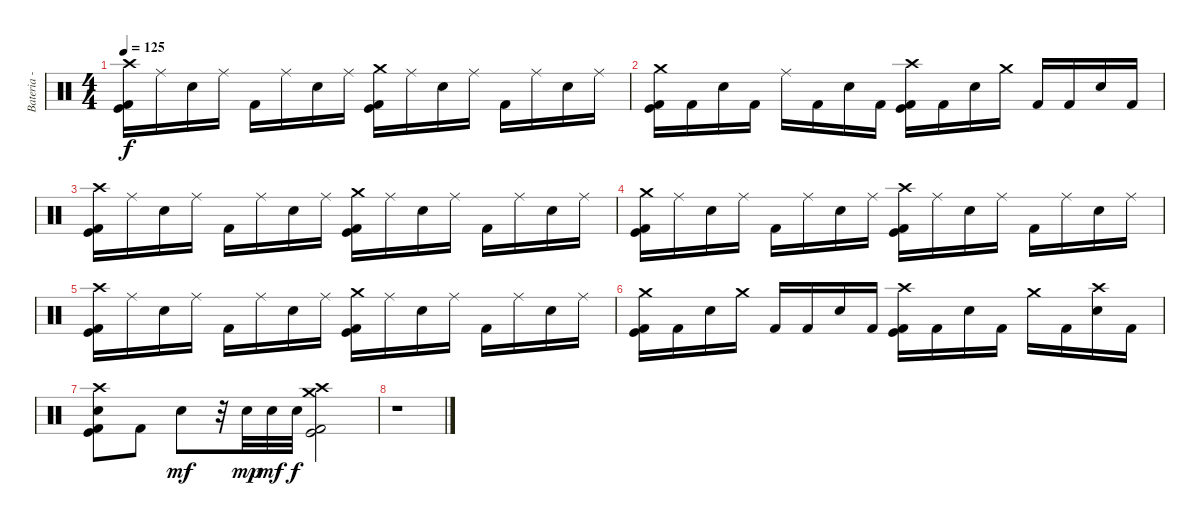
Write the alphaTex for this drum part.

\track ("Bateria - Drums" "Bateria - ") {instrument percussion}
\staff {score}
\articulation defaults
\ts (4 4)
\tempo 125
\clef neutral
\ks c
("Crash high (hit)" "Kick (hit)" "Kick (hit) 2").16{dy f} "Ride (middle)".16 "Electric Snare (hit)".16 "Ride (middle)".16 "Kick (hit) 2".16 "Ride (middle)".16 "Electric Snare (hit)".16 "Ride (middle)".16 ("Crash medium (hit)" "Kick (hit)" "Kick (hit) 2").16 "Ride (middle)".16 "Electric Snare (hit)".16 "Ride (middle)".16 "Kick (hit) 2".16 "Ride (middle)".16 "Electric Snare (hit)".16 "Ride (middle)".16 |
("Crash medium (hit)" "Kick (hit)" "Kick (hit) 2").16 "Kick (hit) 2".16 "Electric Snare (hit)".16 "Kick (hit) 2".16 "Ride (middle)".16 "Kick (hit) 2".16 "Electric Snare (hit)".16 "Kick (hit) 2".16 ("Crash high (hit)" "Kick (hit)" "Kick (hit) 2").16 "Kick (hit) 2".16 "Electric Snare (hit)".16 "Crash medium (hit)".16 "Kick (hit) 2".16 "Kick (hit) 2".16 "Electric Snare (hit)".16 "Kick (hit) 2".16 |
("Crash high (hit)" "Kick (hit)" "Kick (hit) 2").16 "Ride (middle)".16 "Electric Snare (hit)".16 "Ride (middle)".16 "Kick (hit) 2".16 "Ride (middle)".16 "Electric Snare (hit)".16 "Ride (middle)".16 ("Crash medium (hit)" "Kick (hit)" "Kick (hit) 2").16 "Ride (middle)".16 "Electric Snare (hit)".16 "Ride (middle)".16 "Kick (hit) 2".16 "Ride (middle)".16 "Electric Snare (hit)".16 "Ride (middle)".16 |
("Crash medium (hit)" "Kick (hit)" "Kick (hit) 2").16 "Ride (middle)".16 "Electric Snare (hit)".16 "Ride (middle)".16 "Kick (hit) 2".16 "Ride (middle)".16 "Electric Snare (hit)".16 "Ride (middle)".16 ("Crash high (hit)" "Kick (hit)" "Kick (hit) 2").16 "Ride (middle)".16 "Electric Snare (hit)".16 "Ride (middle)".16 "Kick (hit) 2".16 "Ride (middle)".16 "Electric Snare (hit)".16 "Ride (middle)".16 |
("Crash high (hit)" "Kick (hit)" "Kick (hit) 2").16 "Ride (middle)".16 "Electric Snare (hit)".16 "Ride (middle)".16 "Kick (hit) 2".16 "Ride (middle)".16 "Electric Snare (hit)".16 "Ride (middle)".16 ("Crash medium (hit)" "Kick (hit)" "Kick (hit) 2").16 "Ride (middle)".16 "Electric Snare (hit)".16 "Ride (middle)".16 "Kick (hit) 2".16 "Ride (middle)".16 "Electric Snare (hit)".16 "Ride (middle)".16 |
("Crash medium (hit)" "Kick (hit)" "Kick (hit) 2").16 "Kick (hit) 2".16 "Electric Snare (hit)".16 "Crash medium (hit)".16 "Kick (hit) 2".16 "Kick (hit) 2".16 "Electric Snare (hit)".16 "Kick (hit) 2".16 ("Crash high (hit)" "Kick (hit)" "Kick (hit) 2").16 "Kick (hit) 2".16 "Electric Snare (hit)".16 "Kick (hit) 2".16 "Crash medium (hit)".16 "Kick (hit) 2".16 ("Crash high (hit)" "Electric Snare (hit)").16 "Kick (hit) 2".16 |
("Crash high (hit)" "Snare (hit) 2" "Kick (hit)" "Kick (hit) 2").8 "Kick (hit) 2".8 "Snare (hit) 2".8{dy mf} r.32 "Snare (hit) 2".32{dy mp} "Snare (hit) 2".32{dy mf} "Snare (hit) 2".32{dy f} ("Crash high (hit)" "Crash medium (hit)" "Kick (hit)" "Kick (hit) 2").2 |
r.1
